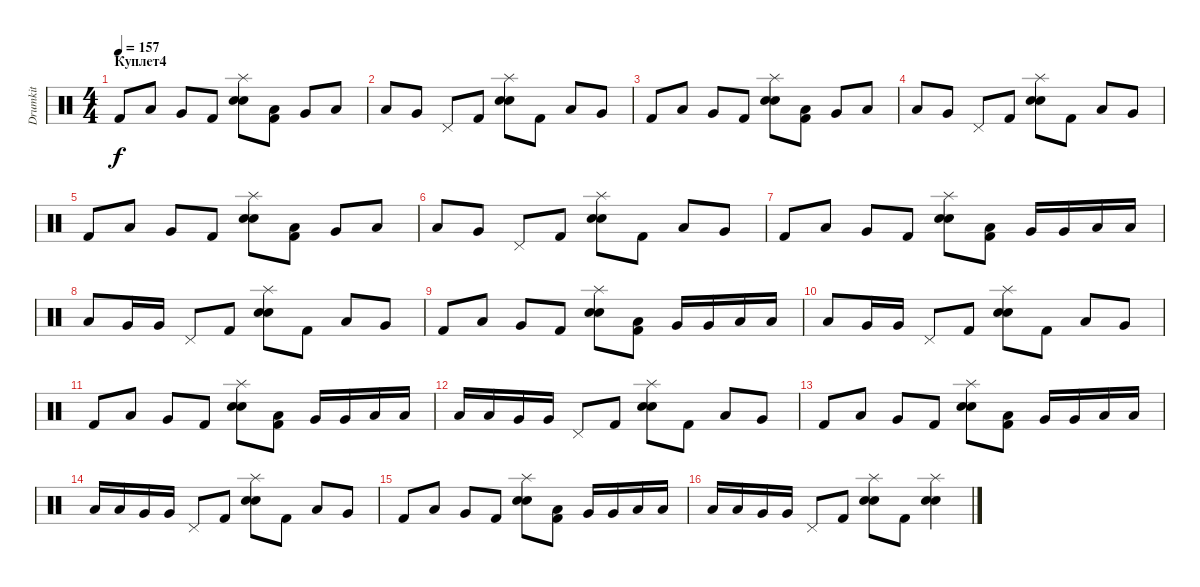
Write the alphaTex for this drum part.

\track ("Drumkit" "Drumkit") {instrument percussion}
\staff {score}
\articulation defaults
\ts (4 4)
\section ("" "Куплет4")
\tempo 157
\clef neutral
\ks c "Kick (hit) 2".8{dy f} "Low Tom (hit)".8 "Very Low Tom (hit)".8 "Kick (hit) 2".8
("Splash (hit)" "Electric Snare (hit)" "Snare (hit) 2").8 ("Low Tom (hit)" "Kick (hit) 2").8 "Very Low Tom (hit)".8 "Low Floor Tom (hit)".8 |
"Low Tom (hit)".8 "Very Low Tom (hit)".8 "Pedal Hi-Hat (hit)".8 "Kick (hit) 2".8 ("Splash (hit)" "Electric Snare (hit)" "Snare (hit) 2").8 "Kick (hit) 2".8 "Low Tom (hit)".8 "Very Low Tom (hit)".8 |
"Kick (hit) 2".8 "Low Tom (hit)".8 "Very Low Tom (hit)".8 "Kick (hit) 2".8 ("Splash (hit)" "Electric Snare (hit)" "Snare (hit) 2").8 ("Low Tom (hit)" "Kick (hit) 2").8 "Very Low Tom (hit)".8 "Low Floor Tom (hit)".8 |
"Low Tom (hit)".8 "Very Low Tom (hit)".8 "Pedal Hi-Hat (hit)".8 "Kick (hit) 2".8 ("Splash (hit)" "Electric Snare (hit)" "Snare (hit) 2").8 "Kick (hit) 2".8 "Low Tom (hit)".8 "Very Low Tom (hit)".8 |
"Kick (hit) 2".8 "Low Tom (hit)".8 "Very Low Tom (hit)".8 "Kick (hit) 2".8 ("Splash (hit)" "Electric Snare (hit)" "Snare (hit) 2").8 ("Low Tom (hit)" "Kick (hit) 2").8 "Very Low Tom (hit)".8 "Low Floor Tom (hit)".8 |
"Low Tom (hit)".8 "Very Low Tom (hit)".8 "Pedal Hi-Hat (hit)".8 "Kick (hit) 2".8 ("Splash (hit)" "Electric Snare (hit)" "Snare (hit) 2").8 "Kick (hit) 2".8 "Low Tom (hit)".8 "Very Low Tom (hit)".8 |
"Kick (hit) 2".8 "Low Tom (hit)".8 "Very Low Tom (hit)".8 "Kick (hit) 2".8 ("Splash (hit)" "Electric Snare (hit)" "Snare (hit) 2").8 ("Low Tom (hit)" "Kick (hit) 2").8 "Very Low Tom (hit)".16 "Very Low Tom (hit)".16 "Low Floor Tom (hit)".16 "Low Floor Tom (hit)".16 |
"Low Tom (hit)".8 "Very Low Tom (hit)".16 "Very Low Tom (hit)".16 "Pedal Hi-Hat (hit)".8 "Kick (hit) 2".8 ("Splash (hit)" "Electric Snare (hit)" "Snare (hit) 2").8 "Kick (hit) 2".8 "Low Tom (hit)".8 "Very Low Tom (hit)".8 |
"Kick (hit) 2".8 "Low Tom (hit)".8 "Very Low Tom (hit)".8 "Kick (hit) 2".8 ("Splash (hit)" "Electric Snare (hit)" "Snare (hit) 2").8 ("Low Tom (hit)" "Kick (hit) 2").8 "Very Low Tom (hit)".16 "Very Low Tom (hit)".16 "Low Floor Tom (hit)".16 "Low Floor Tom (hit)".16 |
"Low Tom (hit)".8 "Very Low Tom (hit)".16 "Very Low Tom (hit)".16 "Pedal Hi-Hat (hit)".8 "Kick (hit) 2".8 ("Splash (hit)" "Electric Snare (hit)" "Snare (hit) 2").8 "Kick (hit) 2".8 "Low Tom (hit)".8 "Very Low Tom (hit)".8 |
"Kick (hit) 2".8 "Low Tom (hit)".8 "Very Low Tom (hit)".8 "Kick (hit) 2".8 ("Splash (hit)" "Electric Snare (hit)" "Snare (hit) 2").8 ("Low Tom (hit)" "Kick (hit) 2").8 "Very Low Tom (hit)".16 "Very Low Tom (hit)".16 "Low Floor Tom (hit)".16 "Low Floor Tom (hit)".16 |
"Low Tom (hit)".16 "Low Tom (hit)".16 "Very Low Tom (hit)".16 "Very Low Tom (hit)".16 "Pedal Hi-Hat (hit)".8 "Kick (hit) 2".8 ("Splash (hit)" "Electric Snare (hit)" "Snare (hit) 2").8 "Kick (hit) 2".8 "Low Tom (hit)".8 "Very Low Tom (hit)".8 |
"Kick (hit) 2".8 "Low Tom (hit)".8 "Very Low Tom (hit)".8 "Kick (hit) 2".8 ("Splash (hit)" "Electric Snare (hit)" "Snare (hit) 2").8 ("Low Tom (hit)" "Kick (hit) 2").8 "Very Low Tom (hit)".16 "Very Low Tom (hit)".16 "Low Floor Tom (hit)".16 "Low Floor Tom (hit)".16 |
"Low Tom (hit)".16 "Low Tom (hit)".16 "Very Low Tom (hit)".16 "Very Low Tom (hit)".16 "Pedal Hi-Hat (hit)".8 "Kick (hit) 2".8 ("Splash (hit)" "Electric Snare (hit)" "Snare (hit) 2").8 "Kick (hit) 2".8 "Low Tom (hit)".8 "Very Low Tom (hit)".8 |
"Kick (hit) 2".8 "Low Tom (hit)".8 "Very Low Tom (hit)".8 "Kick (hit) 2".8 ("Splash (hit)" "Electric Snare (hit)" "Snare (hit) 2").8 ("Low Tom (hit)" "Kick (hit) 2").8 "Very Low Tom (hit)".16 "Very Low Tom (hit)".16 "Low Floor Tom (hit)".16 "Low Floor Tom (hit)".16 |
"Low Tom (hit)".16 "Low Tom (hit)".16 "Very Low Tom (hit)".16 "Very Low Tom (hit)".16 "Pedal Hi-Hat (hit)".8 "Kick (hit) 2".8 ("Splash (hit)" "Electric Snare (hit)" "Snare (hit) 2").8 "Kick (hit) 2".8 ("Splash (hit)" "Electric Snare (hit)" "Snare (hit) 2").4
